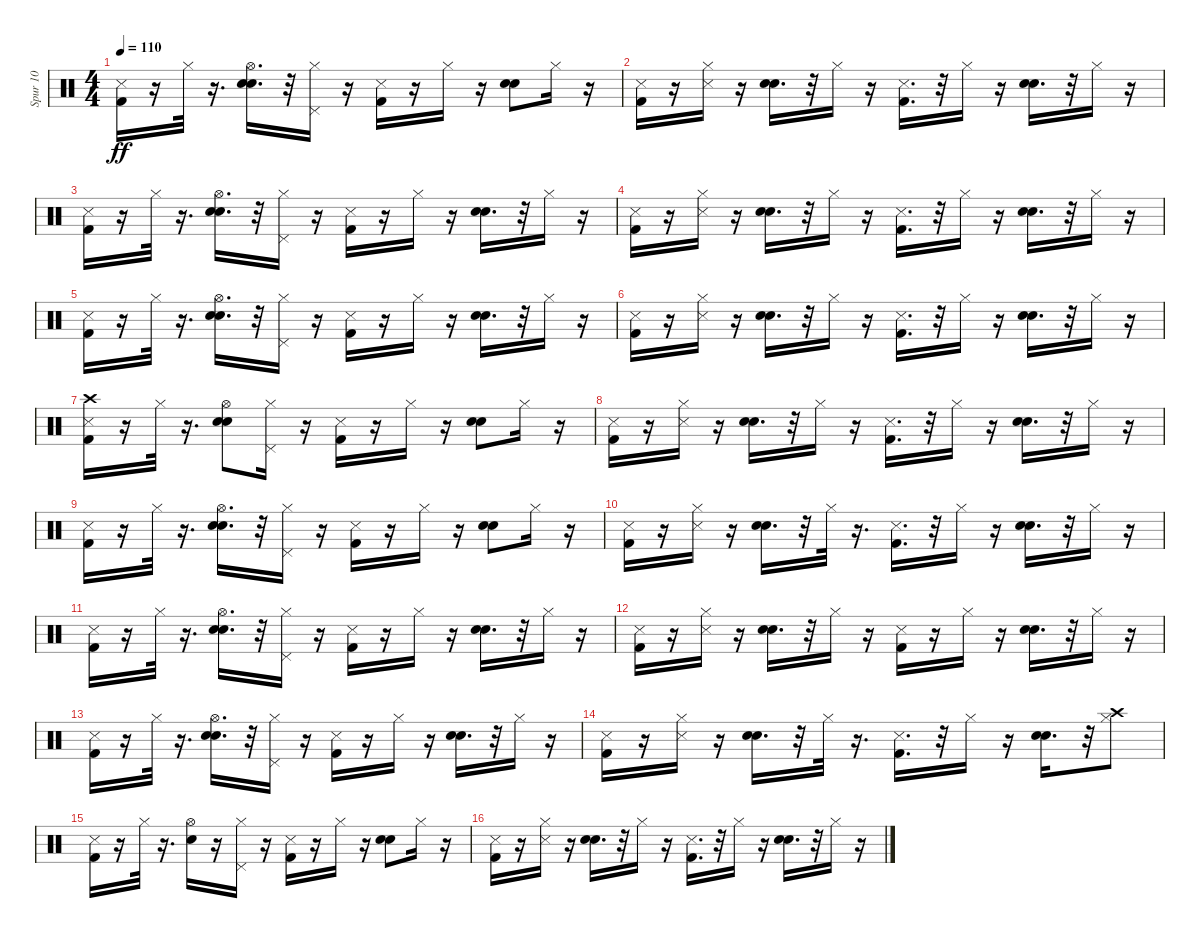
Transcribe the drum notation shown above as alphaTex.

\track ("Spur 10" "Spur 10") {instrument percussion}
\staff {score}
\articulation defaults
\ts (4 4)
\tempo 110
\clef neutral
\ks c
("Kick (hit) 2" "Snare (side stick) 3").16{dy ff} r.16 "Hi-Hat (closed)".32 r.16{d} ("Hand Clap (hit)" "Electric Snare (hit)" "Hi-Hat (open)").16{d} r.32 ("Hi-Hat (closed)" "Pedal Hi-Hat (hit)").16 r.16 ("Kick (hit) 2" "Snare (side stick) 3").16 r.16 "Hi-Hat (closed)".16 r.16 ("Hand Clap (hit)" "Electric Snare (hit)").8 "Hi-Hat (closed)".16 r.16 |
("Kick (hit) 2" "Snare (side stick) 3").16 r.16 ("Snare (side stick) 3" "Hi-Hat (closed)").16 r.16 ("Hand Clap (hit)" "Electric Snare (hit)").16{d} r.32 "Hi-Hat (closed)".16 r.16 ("Kick (hit) 2" "Snare (side stick) 3").16{d} r.32 "Hi-Hat (closed)".16 r.16 ("Electric Snare (hit)" "Hand Clap (hit)").16{d} r.32 "Hi-Hat (closed)".16 r.16 |
("Kick (hit) 2" "Snare (side stick) 3").16 r.16 "Hi-Hat (closed)".32 r.16{d} ("Hand Clap (hit)" "Electric Snare (hit)" "Hi-Hat (open)").16{d} r.32 ("Hi-Hat (closed)" "Pedal Hi-Hat (hit)").16 r.16 ("Kick (hit) 2" "Snare (side stick) 3").16 r.16 "Hi-Hat (closed)".16 r.16 ("Hand Clap (hit)" "Electric Snare (hit)").16{d} r.32 "Hi-Hat (closed)".16 r.16 |
("Kick (hit) 2" "Snare (side stick) 3").16 r.16 ("Snare (side stick) 3" "Hi-Hat (closed)").16 r.16 ("Hand Clap (hit)" "Electric Snare (hit)").16{d} r.32 "Hi-Hat (closed)".16 r.16 ("Kick (hit) 2" "Snare (side stick) 3").16{d} r.32 "Hi-Hat (closed)".16 r.16 ("Electric Snare (hit)" "Hand Clap (hit)").16{d} r.32 "Hi-Hat (closed)".16 r.16 |
("Kick (hit) 2" "Snare (side stick) 3").16 r.16 "Hi-Hat (closed)".32 r.16{d} ("Hand Clap (hit)" "Electric Snare (hit)" "Hi-Hat (open)").16{d} r.32 ("Hi-Hat (closed)" "Pedal Hi-Hat (hit)").16 r.16 ("Kick (hit) 2" "Snare (side stick) 3").16 r.16 "Hi-Hat (closed)".16 r.16 ("Hand Clap (hit)" "Electric Snare (hit)").16{d} r.32 "Hi-Hat (closed)".16 r.16 |
("Kick (hit) 2" "Snare (side stick) 3").16 r.16 ("Snare (side stick) 3" "Hi-Hat (closed)").16 r.16 ("Hand Clap (hit)" "Electric Snare (hit)").16{d} r.32 "Hi-Hat (closed)".16 r.16 ("Kick (hit) 2" "Snare (side stick) 3").16{d} r.32 "Hi-Hat (closed)".16 r.16 ("Hand Clap (hit)" "Electric Snare (hit)").16{d} r.32 "Hi-Hat (closed)".16 r.16 |
("Kick (hit) 2" "Snare (side stick) 3" "Crash high (hit)").16 r.16 "Hi-Hat (closed)".32 r.16{d} ("Hand Clap (hit)" "Electric Snare (hit)" "Hi-Hat (open)").8 ("Hi-Hat (closed)" "Pedal Hi-Hat (hit)").16 r.16 ("Kick (hit) 2" "Snare (side stick) 3").16 r.16 "Hi-Hat (closed)".16 r.16 ("Electric Snare (hit)" "Hand Clap (hit)").8 "Hi-Hat (closed)".16 r.16 |
("Kick (hit) 2" "Snare (side stick) 3").16 r.16 ("Snare (side stick) 3" "Hi-Hat (closed)").16 r.16 ("Hand Clap (hit)" "Electric Snare (hit)").16{d} r.32 "Hi-Hat (closed)".16 r.16 ("Kick (hit) 2" "Snare (side stick) 3").16{d} r.32 "Hi-Hat (closed)".16 r.16 ("Hand Clap (hit)" "Electric Snare (hit)").16{d} r.32 "Hi-Hat (closed)".16 r.16 |
("Kick (hit) 2" "Snare (side stick) 3").16 r.16 "Hi-Hat (closed)".32 r.16{d} ("Hand Clap (hit)" "Electric Snare (hit)" "Hi-Hat (open)").16{d} r.32 ("Hi-Hat (closed)" "Pedal Hi-Hat (hit)").16 r.16 ("Kick (hit) 2" "Snare (side stick) 3").16 r.16 "Hi-Hat (closed)".16 r.16 ("Hand Clap (hit)" "Electric Snare (hit)").8 "Hi-Hat (closed)".16 r.16 |
("Kick (hit) 2" "Snare (side stick) 3").16 r.16 ("Snare (side stick) 3" "Hi-Hat (closed)").16 r.16 ("Hand Clap (hit)" "Electric Snare (hit)").16{d} r.32 "Hi-Hat (closed)".32 r.16{d} ("Kick (hit) 2" "Snare (side stick) 3").16{d} r.32 "Hi-Hat (closed)".16 r.16 ("Electric Snare (hit)" "Hand Clap (hit)").16{d} r.32 "Hi-Hat (closed)".16 r.16 |
("Kick (hit) 2" "Snare (side stick) 3").16 r.16 "Hi-Hat (closed)".32 r.16{d} ("Hand Clap (hit)" "Electric Snare (hit)" "Hi-Hat (open)").16{d} r.32 ("Hi-Hat (closed)" "Pedal Hi-Hat (hit)").16 r.16 ("Kick (hit) 2" "Snare (side stick) 3").16 r.16 "Hi-Hat (closed)".16 r.16 ("Hand Clap (hit)" "Electric Snare (hit)").16{d} r.32 "Hi-Hat (closed)".16 r.16 |
("Kick (hit) 2" "Snare (side stick) 3").16 r.16 ("Snare (side stick) 3" "Hi-Hat (closed)").16 r.16 ("Hand Clap (hit)" "Electric Snare (hit)").16{d} r.32 "Hi-Hat (closed)".16 r.16 ("Kick (hit) 2" "Snare (side stick) 3").16 r.16 "Hi-Hat (closed)".16 r.16 ("Electric Snare (hit)" "Hand Clap (hit)").16{d} r.32 "Hi-Hat (closed)".16 r.16 |
("Kick (hit) 2" "Snare (side stick) 3").16 r.16 "Hi-Hat (closed)".32 r.16{d} ("Hand Clap (hit)" "Electric Snare (hit)" "Hi-Hat (open)").16{d} r.32 ("Hi-Hat (closed)" "Pedal Hi-Hat (hit)").16 r.16 ("Kick (hit) 2" "Snare (side stick) 3").16 r.16 "Hi-Hat (closed)".16 r.16 ("Hand Clap (hit)" "Electric Snare (hit)").16{d} r.32 "Hi-Hat (closed)".16 r.16 |
("Kick (hit) 2" "Snare (side stick) 3").16 r.16 ("Snare (side stick) 3" "Hi-Hat (closed)").16 r.16 ("Hand Clap (hit)" "Electric Snare (hit)").16{d} r.32 "Hi-Hat (closed)".32 r.16{d} ("Kick (hit) 2" "Snare (side stick) 3").16{d} r.32 "Hi-Hat (closed)".16 r.16 ("Hand Clap (hit)" "Electric Snare (hit)").16{d} r.32 ("Hi-Hat (closed)" "Crash high (hit)").8 |
("Kick (hit) 2" "Snare (side stick) 3").16 r.16 "Hi-Hat (closed)".32 r.16{d} ("Electric Snare (hit)" "Hi-Hat (open)").16 r.16 ("Hi-Hat (closed)" "Pedal Hi-Hat (hit)").16 r.16 ("Kick (hit) 2" "Snare (side stick) 3").16 r.16 "Hi-Hat (closed)".16 r.16 ("Electric Snare (hit)" "Hand Clap (hit)").8 "Hi-Hat (closed)".16 r.16 |
("Kick (hit) 2" "Snare (side stick) 3").16 r.16 ("Snare (side stick) 3" "Hi-Hat (closed)").16 r.16 ("Hand Clap (hit)" "Electric Snare (hit)").16{d} r.32 "Hi-Hat (closed)".16 r.16 ("Kick (hit) 2" "Snare (side stick) 3").16{d} r.32 "Hi-Hat (closed)".16 r.16 ("Hand Clap (hit)" "Electric Snare (hit)").16{d} r.32 "Hi-Hat (closed)".16 r.16
